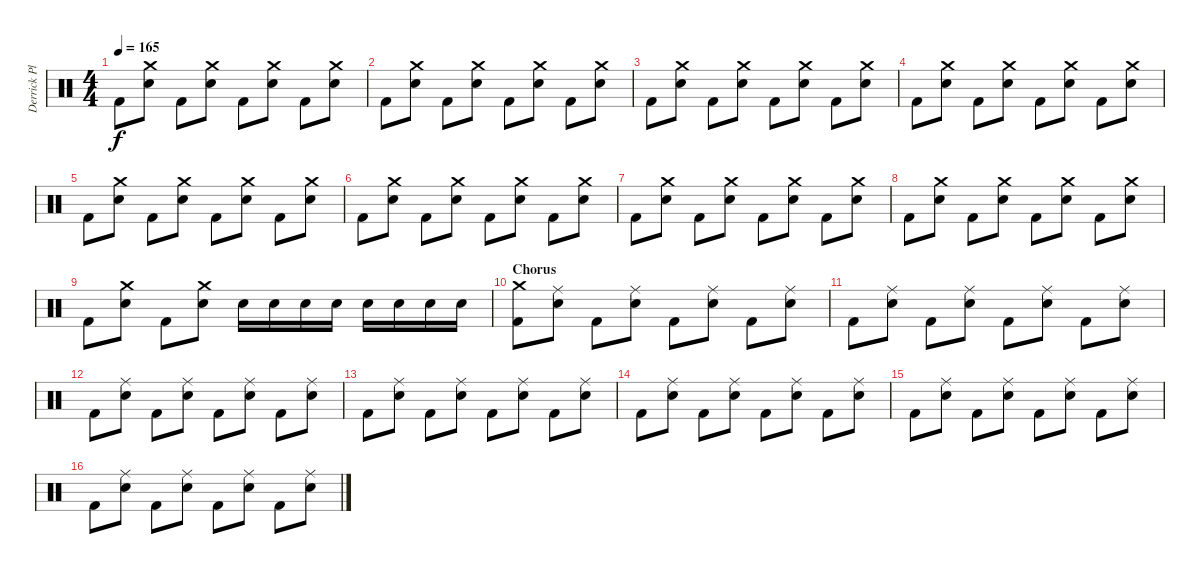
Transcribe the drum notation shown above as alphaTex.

\track ("Derrick Plourde (R.I.P.)" "Derrick Pl") {instrument percussion}
\staff {score}
\articulation defaults
\ts (4 4)
\tempo 165
\clef neutral
\ks c "Kick (hit) 2".8{dy f}
("Electric Snare (hit)" "Crash medium (hit)").8 "Kick (hit) 2".8 ("Electric Snare (hit)" "Crash medium (hit)").8 "Kick (hit) 2".8 ("Electric Snare (hit)" "Crash medium (hit)").8 "Kick (hit) 2".8 ("Electric Snare (hit)" "Crash medium (hit)").8 |
"Kick (hit) 2".8 ("Electric Snare (hit)" "Crash medium (hit)").8 "Kick (hit) 2".8 ("Electric Snare (hit)" "Crash medium (hit)").8 "Kick (hit) 2".8 ("Electric Snare (hit)" "Crash medium (hit)").8 "Kick (hit) 2".8 ("Electric Snare (hit)" "Crash medium (hit)").8 |
"Kick (hit) 2".8 ("Electric Snare (hit)" "Crash medium (hit)").8 "Kick (hit) 2".8 ("Electric Snare (hit)" "Crash medium (hit)").8 "Kick (hit) 2".8 ("Electric Snare (hit)" "Crash medium (hit)").8 "Kick (hit) 2".8 ("Electric Snare (hit)" "Crash medium (hit)").8 |
"Kick (hit) 2".8 ("Electric Snare (hit)" "Crash medium (hit)").8 "Kick (hit) 2".8 ("Electric Snare (hit)" "Crash medium (hit)").8 "Kick (hit) 2".8 ("Electric Snare (hit)" "Crash medium (hit)").8 "Kick (hit) 2".8 ("Electric Snare (hit)" "Crash medium (hit)").8 |
"Kick (hit) 2".8 ("Electric Snare (hit)" "Crash medium (hit)").8 "Kick (hit) 2".8 ("Electric Snare (hit)" "Crash medium (hit)").8 "Kick (hit) 2".8 ("Electric Snare (hit)" "Crash medium (hit)").8 "Kick (hit) 2".8 ("Electric Snare (hit)" "Crash medium (hit)").8 |
"Kick (hit) 2".8 ("Electric Snare (hit)" "Crash medium (hit)").8 "Kick (hit) 2".8 ("Electric Snare (hit)" "Crash medium (hit)").8 "Kick (hit) 2".8 ("Electric Snare (hit)" "Crash medium (hit)").8 "Kick (hit) 2".8 ("Electric Snare (hit)" "Crash medium (hit)").8 |
"Kick (hit) 2".8 ("Electric Snare (hit)" "Crash medium (hit)").8 "Kick (hit) 2".8 ("Electric Snare (hit)" "Crash medium (hit)").8 "Kick (hit) 2".8 ("Electric Snare (hit)" "Crash medium (hit)").8 "Kick (hit) 2".8 ("Electric Snare (hit)" "Crash medium (hit)").8 |
"Kick (hit) 2".8 ("Electric Snare (hit)" "Crash medium (hit)").8 "Kick (hit) 2".8 ("Electric Snare (hit)" "Crash medium (hit)").8 "Kick (hit) 2".8 ("Electric Snare (hit)" "Crash medium (hit)").8 "Kick (hit) 2".8 ("Electric Snare (hit)" "Crash medium (hit)").8 |
"Kick (hit) 2".8 ("Electric Snare (hit)" "Crash medium (hit)").8 "Kick (hit) 2".8 ("Electric Snare (hit)" "Crash medium (hit)").8 "Electric Snare (hit)".16 "Electric Snare (hit)".16 "Electric Snare (hit)".16 "Electric Snare (hit)".16 "Electric Snare (hit)".16 "Electric Snare (hit)".16 "Electric Snare (hit)".16 "Electric Snare (hit)".16 |
\section ("" "Chorus")
("Kick (hit) 2" "Crash medium (hit)").8 ("Electric Snare (hit)" "Ride (middle)").8 "Kick (hit) 2".8 ("Electric Snare (hit)" "Ride (middle)").8 "Kick (hit) 2".8 ("Electric Snare (hit)" "Ride (middle)").8 "Kick (hit) 2".8 ("Electric Snare (hit)" "Ride (middle)").8 |
"Kick (hit) 2".8 ("Electric Snare (hit)" "Ride (middle)").8 "Kick (hit) 2".8 ("Electric Snare (hit)" "Ride (middle)").8 "Kick (hit) 2".8 ("Electric Snare (hit)" "Ride (middle)").8 "Kick (hit) 2".8 ("Electric Snare (hit)" "Ride (middle)").8 |
"Kick (hit) 2".8 ("Electric Snare (hit)" "Ride (middle)").8 "Kick (hit) 2".8 ("Electric Snare (hit)" "Ride (middle)").8 "Kick (hit) 2".8 ("Electric Snare (hit)" "Ride (middle)").8 "Kick (hit) 2".8 ("Electric Snare (hit)" "Ride (middle)").8 |
"Kick (hit) 2".8 ("Electric Snare (hit)" "Ride (middle)").8 "Kick (hit) 2".8 ("Electric Snare (hit)" "Ride (middle)").8 "Kick (hit) 2".8 ("Electric Snare (hit)" "Ride (middle)").8 "Kick (hit) 2".8 ("Electric Snare (hit)" "Ride (middle)").8 |
"Kick (hit) 2".8 ("Electric Snare (hit)" "Ride (middle)").8 "Kick (hit) 2".8 ("Electric Snare (hit)" "Ride (middle)").8 "Kick (hit) 2".8 ("Electric Snare (hit)" "Ride (middle)").8 "Kick (hit) 2".8 ("Electric Snare (hit)" "Ride (middle)").8 |
"Kick (hit) 2".8 ("Electric Snare (hit)" "Ride (middle)").8 "Kick (hit) 2".8 ("Electric Snare (hit)" "Ride (middle)").8 "Kick (hit) 2".8 ("Electric Snare (hit)" "Ride (middle)").8 "Kick (hit) 2".8 ("Electric Snare (hit)" "Ride (middle)").8 |
"Kick (hit) 2".8 ("Electric Snare (hit)" "Ride (middle)").8 "Kick (hit) 2".8 ("Electric Snare (hit)" "Ride (middle)").8 "Kick (hit) 2".8 ("Electric Snare (hit)" "Ride (middle)").8 "Kick (hit) 2".8 ("Electric Snare (hit)" "Ride (middle)").8
